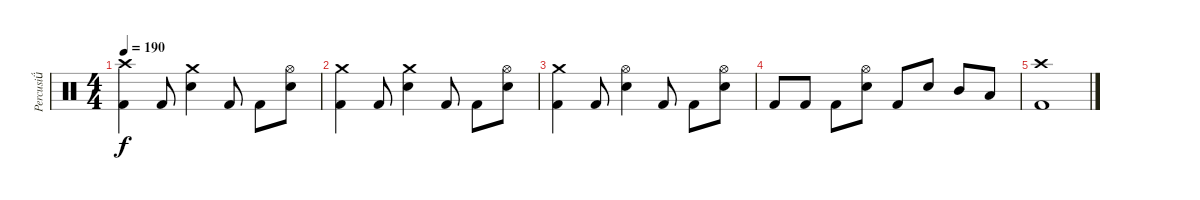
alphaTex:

\track ("Percusi" "Percusi") {instrument percussion}
\staff {score}
\articulation defaults
\ts (4 4)
\tempo 190
\clef neutral
\ks c
("Crash high (hit)" "Kick (hit) 2").4{dy f} "Kick (hit) 2".8 ("Crash medium (hit)" "Electric Snare (hit)").4 "Kick (hit) 2".8 "Kick (hit) 2".8 ("Hi-Hat (open)" "Electric Snare (hit)").8 |
("Crash medium (hit)" "Kick (hit) 2").4 "Kick (hit) 2".8 ("Crash medium (hit)" "Electric Snare (hit)").4 "Kick (hit) 2".8 "Kick (hit) 2".8 ("Hi-Hat (open)" "Electric Snare (hit)").8 |
("Crash medium (hit)" "Kick (hit) 2").4 "Kick (hit) 2".8 ("Hi-Hat (open)" "Electric Snare (hit)").4 "Kick (hit) 2".8 "Kick (hit) 2".8 ("Hi-Hat (open)" "Electric Snare (hit)").8 |
"Kick (hit) 2".8 "Kick (hit) 2".8 "Kick (hit) 2".8 ("Hi-Hat (open)" "Electric Snare (hit)").8 "Kick (hit) 2".8 "Electric Snare (hit)".8 "Mid Tom (hit)".8 "Low Tom (hit)".8 |
("Crash high (hit)" "Kick (hit) 2").1
